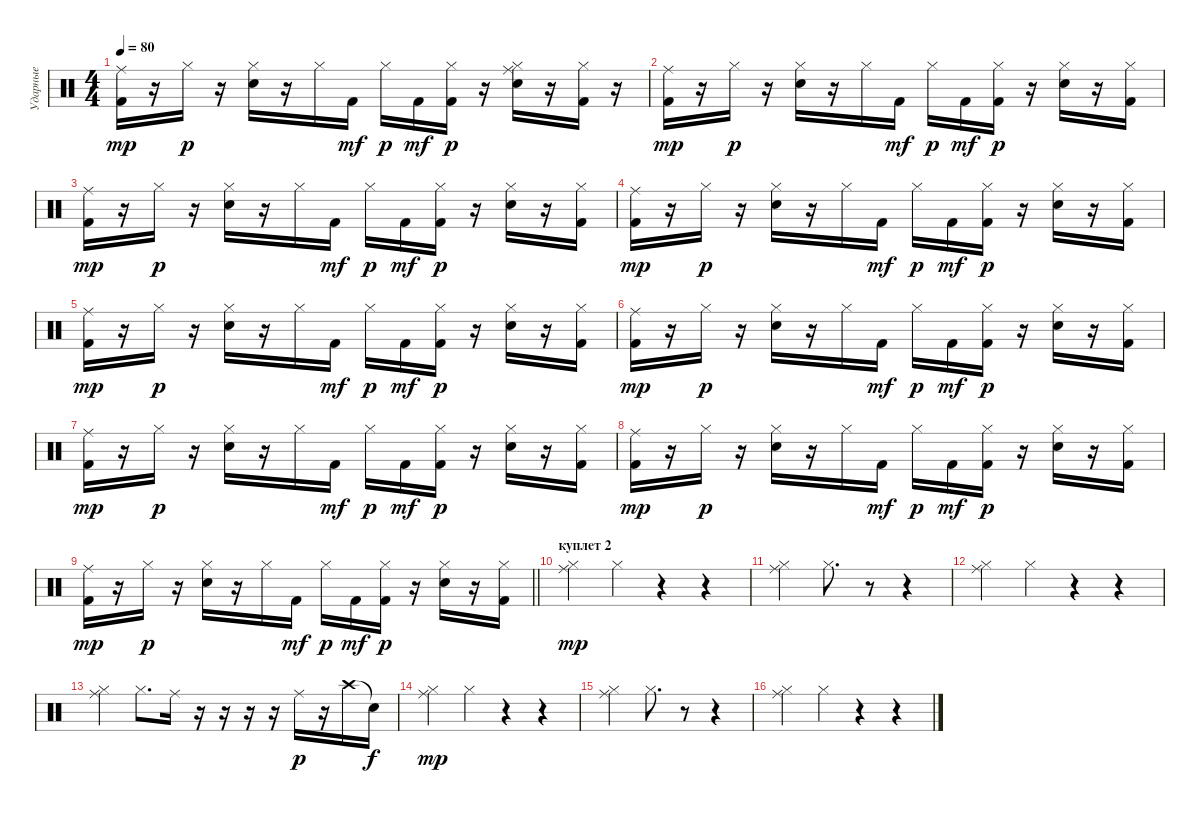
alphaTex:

\track ("Ударные" "Ударные") {instrument percussion}
\staff {score}
\articulation defaults
\ts (4 4)
\tempo 80
\clef neutral
\ks c
("Kick (hit) 2" "Ride (middle)").16{dy mp} r.16 "Hi-Hat (closed)".16{dy p} r.16 ("Electric Snare (hit)" "Hi-Hat (closed)").16 r.16 "Hi-Hat (closed)".16 "Kick (hit) 2".16{dy mf} "Hi-Hat (closed)".16{dy p} "Kick (hit) 2".16{dy mf} ("Kick (hit) 2" "Hi-Hat (closed)").16{dy p} r.16 ("Electric Snare (hit)" "Ride (middle)" "Hi-Hat (closed)").16 r.16 ("Kick (hit) 2" "Hi-Hat (closed)").16 r.16 |
("Kick (hit) 2" "Ride (middle)").16{dy mp} r.16 "Hi-Hat (closed)".16{dy p} r.16 ("Electric Snare (hit)" "Hi-Hat (closed)").16 r.16 "Hi-Hat (closed)".16 "Kick (hit) 2".16{dy mf} "Hi-Hat (closed)".16{dy p} "Kick (hit) 2".16{dy mf} ("Kick (hit) 2" "Hi-Hat (closed)").16{dy p} r.16 ("Electric Snare (hit)" "Hi-Hat (closed)").16 r.16 ("Kick (hit) 2" "Hi-Hat (closed)").16 |
("Kick (hit) 2" "Ride (middle)").16{dy mp} r.16 "Hi-Hat (closed)".16{dy p} r.16 ("Electric Snare (hit)" "Hi-Hat (closed)").16 r.16 "Hi-Hat (closed)".16 "Kick (hit) 2".16{dy mf} "Hi-Hat (closed)".16{dy p} "Kick (hit) 2".16{dy mf} ("Kick (hit) 2" "Hi-Hat (closed)").16{dy p} r.16 ("Electric Snare (hit)" "Hi-Hat (closed)").16 r.16 ("Kick (hit) 2" "Hi-Hat (closed)").16 |
("Kick (hit) 2" "Ride (middle)").16{dy mp} r.16 "Hi-Hat (closed)".16{dy p} r.16 ("Electric Snare (hit)" "Hi-Hat (closed)").16 r.16 "Hi-Hat (closed)".16 "Kick (hit) 2".16{dy mf} "Hi-Hat (closed)".16{dy p} "Kick (hit) 2".16{dy mf} ("Kick (hit) 2" "Hi-Hat (closed)").16{dy p} r.16 ("Electric Snare (hit)" "Hi-Hat (closed)").16 r.16 ("Kick (hit) 2" "Hi-Hat (closed)").16 |
("Kick (hit) 2" "Ride (middle)").16{dy mp} r.16 "Hi-Hat (closed)".16{dy p} r.16 ("Electric Snare (hit)" "Hi-Hat (closed)").16 r.16 "Hi-Hat (closed)".16 "Kick (hit) 2".16{dy mf} "Hi-Hat (closed)".16{dy p} "Kick (hit) 2".16{dy mf} ("Kick (hit) 2" "Hi-Hat (closed)").16{dy p} r.16 ("Electric Snare (hit)" "Hi-Hat (closed)").16 r.16 ("Kick (hit) 2" "Hi-Hat (closed)").16 |
("Kick (hit) 2" "Ride (middle)").16{dy mp} r.16 "Hi-Hat (closed)".16{dy p} r.16 ("Electric Snare (hit)" "Hi-Hat (closed)").16 r.16 "Hi-Hat (closed)".16 "Kick (hit) 2".16{dy mf} "Hi-Hat (closed)".16{dy p} "Kick (hit) 2".16{dy mf} ("Kick (hit) 2" "Hi-Hat (closed)").16{dy p} r.16 ("Electric Snare (hit)" "Hi-Hat (closed)").16 r.16 ("Kick (hit) 2" "Hi-Hat (closed)").16 |
("Kick (hit) 2" "Ride (middle)").16{dy mp} r.16 "Hi-Hat (closed)".16{dy p} r.16 ("Electric Snare (hit)" "Hi-Hat (closed)").16 r.16 "Hi-Hat (closed)".16 "Kick (hit) 2".16{dy mf} "Hi-Hat (closed)".16{dy p} "Kick (hit) 2".16{dy mf} ("Kick (hit) 2" "Hi-Hat (closed)").16{dy p} r.16 ("Electric Snare (hit)" "Hi-Hat (closed)").16 r.16 ("Kick (hit) 2" "Hi-Hat (closed)").16 |
("Kick (hit) 2" "Ride (middle)").16{dy mp} r.16 "Hi-Hat (closed)".16{dy p} r.16 ("Electric Snare (hit)" "Hi-Hat (closed)").16 r.16 "Hi-Hat (closed)".16 "Kick (hit) 2".16{dy mf} "Hi-Hat (closed)".16{dy p} "Kick (hit) 2".16{dy mf} ("Kick (hit) 2" "Hi-Hat (closed)").16{dy p} r.16 ("Electric Snare (hit)" "Hi-Hat (closed)").16 r.16 ("Kick (hit) 2" "Hi-Hat (closed)").16 |
\barLineRight lightlight
("Kick (hit) 2" "Ride (middle)").16{dy mp} r.16 "Hi-Hat (closed)".16{dy p} r.16 ("Electric Snare (hit)" "Hi-Hat (closed)").16 r.16 "Hi-Hat (closed)".16 "Kick (hit) 2".16{dy mf} "Hi-Hat (closed)".16{dy p} "Kick (hit) 2".16{dy mf} ("Kick (hit) 2" "Hi-Hat (closed)").16{dy p} r.16 ("Electric Snare (hit)" "Hi-Hat (closed)").16 r.16 ("Kick (hit) 2" "Hi-Hat (closed)").16 |
\section ("" "куплет 2")
("Ride (middle)" "Hi-Hat (closed)").4{dy mp} "Hi-Hat (closed)".4 r.4 r.4 |
("Ride (middle)" "Hi-Hat (closed)").4 "Hi-Hat (closed)".8{d} r.8 r.4 |
("Ride (middle)" "Hi-Hat (closed)").4 "Hi-Hat (closed)".4 r.4 r.4 |
("Ride (middle)" "Hi-Hat (closed)").4 "Hi-Hat (closed)".8{d} "Ride (middle)".16 r.16 r.16 r.16 r.16 "Ride (middle)".16{dy p} r.16 "Crash high (hit)".16 "Snare (hit)"{t}.16{dy f} |
("Ride (middle)" "Hi-Hat (closed)").4{dy mp} "Hi-Hat (closed)".4 r.4 r.4 |
("Ride (middle)" "Hi-Hat (closed)").4 "Hi-Hat (closed)".8{d} r.8 r.4 |
("Ride (middle)" "Hi-Hat (closed)").4 "Hi-Hat (closed)".4 r.4 r.4
